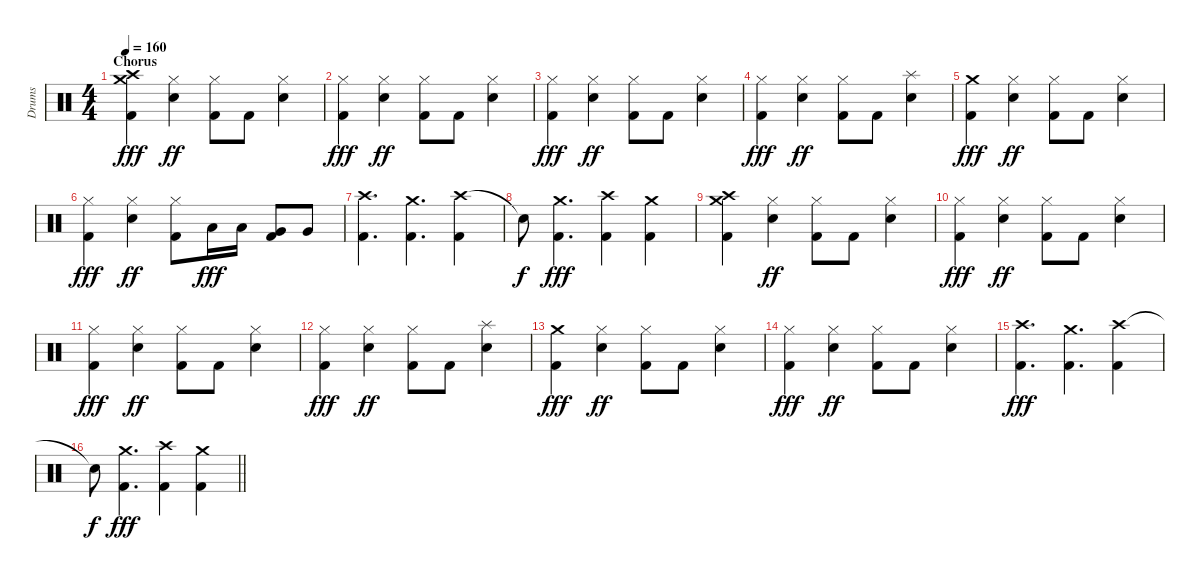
\track ("Drums" "Drums") {instrument percussion}
\staff {score}
\articulation defaults
\ts (4 4)
\section ("" "Chorus")
\tempo 160
\clef neutral
\ks c
("Crash medium (hit)" "Crash high (hit)" "Kick (hit) 2").4{dy fff} ("Hi-Hat (closed)" "Electric Snare (hit)").4{dy ff} ("Hi-Hat (closed)" "Kick (hit) 2").8 "Kick (hit) 2".8 ("Hi-Hat (closed)" "Electric Snare (hit)").4 |
("Hi-Hat (closed)" "Kick (hit) 2").4{dy fff} ("Hi-Hat (closed)" "Electric Snare (hit)").4{dy ff} ("Hi-Hat (closed)" "Kick (hit) 2").8 "Kick (hit) 2".8 ("Hi-Hat (closed)" "Electric Snare (hit)").4 |
("Hi-Hat (closed)" "Kick (hit) 2").4{dy fff} ("Hi-Hat (closed)" "Electric Snare (hit)").4{dy ff} ("Hi-Hat (closed)" "Kick (hit) 2").8 "Kick (hit) 2".8 ("Hi-Hat (closed)" "Electric Snare (hit)").4 |
("Hi-Hat (closed)" "Kick (hit) 2").4{dy fff} ("Hi-Hat (closed)" "Electric Snare (hit)").4{dy ff} ("Hi-Hat (closed)" "Kick (hit) 2").8 "Kick (hit) 2".8 ("Splash (hit)" "Electric Snare (hit)").4 |
("Crash medium (hit)" "Kick (hit) 2").4{dy fff} ("Hi-Hat (closed)" "Electric Snare (hit)").4{dy ff} ("Hi-Hat (closed)" "Kick (hit) 2").8 "Kick (hit) 2".8 ("Hi-Hat (closed)" "Electric Snare (hit)").4 |
("Hi-Hat (closed)" "Kick (hit) 2").4{dy fff} ("Hi-Hat (closed)" "Electric Snare (hit)").4{dy ff} ("Hi-Hat (closed)" "Kick (hit) 2").8 "Low Tom (hit)".16{dy fff} "Low Tom (hit)".16 ("Very Low Tom (hit)" "Kick (hit) 2").8 "Very Low Tom (hit)".8 |
("Crash high (hit)" "Kick (hit) 2").4{d} ("Crash medium (hit)" "Kick (hit) 2").4{d} ("Crash high (hit)" "Kick (hit) 2").4 |
"Snare (hit)"{t}.8{dy f} ("Crash medium (hit)" "Kick (hit) 2").4{d dy fff} ("Crash high (hit)" "Kick (hit) 2").4 ("Crash medium (hit)" "Kick (hit) 2").4 |
("Crash high (hit)" "Crash medium (hit)" "Kick (hit) 2").4 ("Hi-Hat (closed)" "Electric Snare (hit)").4{dy ff} ("Hi-Hat (closed)" "Kick (hit) 2").8 "Kick (hit) 2".8 ("Hi-Hat (closed)" "Electric Snare (hit)").4 |
("Hi-Hat (closed)" "Kick (hit) 2").4{dy fff} ("Hi-Hat (closed)" "Electric Snare (hit)").4{dy ff} ("Hi-Hat (closed)" "Kick (hit) 2").8 "Kick (hit) 2".8 ("Hi-Hat (closed)" "Electric Snare (hit)").4 |
("Hi-Hat (closed)" "Kick (hit) 2").4{dy fff} ("Hi-Hat (closed)" "Electric Snare (hit)").4{dy ff} ("Hi-Hat (closed)" "Kick (hit) 2").8 "Kick (hit) 2".8 ("Hi-Hat (closed)" "Electric Snare (hit)").4 |
("Hi-Hat (closed)" "Kick (hit) 2").4{dy fff} ("Hi-Hat (closed)" "Electric Snare (hit)").4{dy ff} ("Hi-Hat (closed)" "Kick (hit) 2").8 "Kick (hit) 2".8 ("Splash (hit)" "Electric Snare (hit)").4 |
("Crash medium (hit)" "Kick (hit) 2").4{dy fff} ("Hi-Hat (closed)" "Electric Snare (hit)").4{dy ff} ("Hi-Hat (closed)" "Kick (hit) 2").8 "Kick (hit) 2".8 ("Hi-Hat (closed)" "Electric Snare (hit)").4 |
("Hi-Hat (closed)" "Kick (hit) 2").4{dy fff} ("Hi-Hat (closed)" "Electric Snare (hit)").4{dy ff} ("Hi-Hat (closed)" "Kick (hit) 2").8 "Kick (hit) 2".8 ("Hi-Hat (closed)" "Electric Snare (hit)").4 |
("Crash high (hit)" "Kick (hit) 2").4{d dy fff} ("Crash medium (hit)" "Kick (hit) 2").4{d} ("Crash high (hit)" "Kick (hit) 2").4 |
\barLineRight lightlight "Snare (hit)"{t}.8{dy f}
("Crash medium (hit)" "Kick (hit) 2").4{d dy fff} ("Crash high (hit)" "Kick (hit) 2").4 ("Crash medium (hit)" "Kick (hit) 2").4
